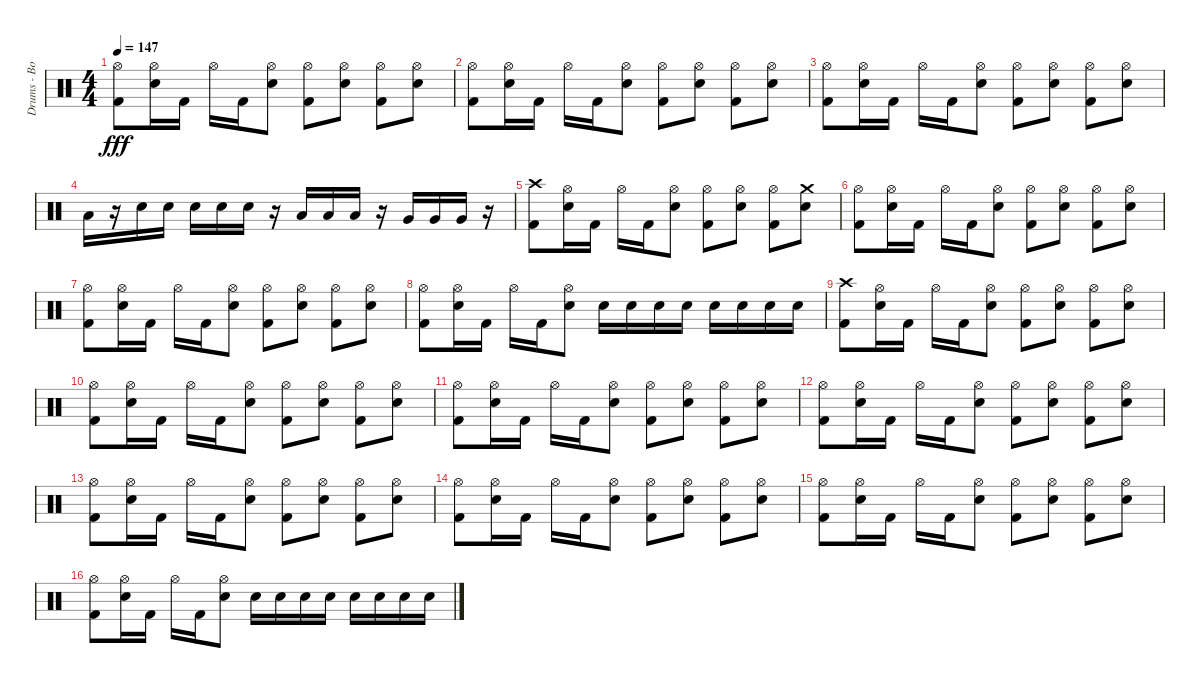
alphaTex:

\track ("Drums - Bobby Schayer" "Drums - Bo") {instrument percussion}
\staff {score}
\articulation defaults
\ts (4 4)
\tempo 147
\clef neutral
\ks c
("Hi-Hat (open)" "Kick (hit) 2").8{dy fff} ("Electric Snare (hit)" "Hi-Hat (open)").16 "Kick (hit) 2".16 "Hi-Hat (open)".16 "Kick (hit) 2".16 ("Electric Snare (hit)" "Hi-Hat (open)").8 ("Kick (hit) 2" "Hi-Hat (open)").8 ("Electric Snare (hit)" "Hi-Hat (open)").8 ("Kick (hit) 2" "Hi-Hat (open)").8 ("Electric Snare (hit)" "Hi-Hat (open)").8 |
("Kick (hit) 2" "Hi-Hat (open)").8 ("Electric Snare (hit)" "Hi-Hat (open)").16 "Kick (hit) 2".16 "Hi-Hat (open)".16 "Kick (hit) 2".16 ("Electric Snare (hit)" "Hi-Hat (open)").8 ("Kick (hit) 2" "Hi-Hat (open)").8 ("Electric Snare (hit)" "Hi-Hat (open)").8 ("Kick (hit) 2" "Hi-Hat (open)").8 ("Electric Snare (hit)" "Hi-Hat (open)").8 |
("Kick (hit) 2" "Hi-Hat (open)").8 ("Electric Snare (hit)" "Hi-Hat (open)").16 "Kick (hit) 2".16 "Hi-Hat (open)".16 "Kick (hit) 2".16 ("Electric Snare (hit)" "Hi-Hat (open)").8 ("Kick (hit) 2" "Hi-Hat (open)").8 ("Electric Snare (hit)" "Hi-Hat (open)").8 ("Kick (hit) 2" "Hi-Hat (open)").8 ("Electric Snare (hit)" "Hi-Hat (open)").8 |
"Low Tom (hit)".16 r.16 "Electric Snare (hit)".16 "Electric Snare (hit)".16 "Electric Snare (hit)".16 "Electric Snare (hit)".16 "Electric Snare (hit)".16 r.16 "Low Tom (hit)".16 "Low Tom (hit)".16 "Low Tom (hit)".16 r.16 "Very Low Tom (hit)".16 "Very Low Tom (hit)".16 "Very Low Tom (hit)".16 r.16 |
("Kick (hit) 2" "Crash high (hit)").8 ("Electric Snare (hit)" "Hi-Hat (open)").16 "Kick (hit) 2".16 "Hi-Hat (open)".16 "Kick (hit) 2".16 ("Electric Snare (hit)" "Hi-Hat (open)").8 ("Hi-Hat (open)" "Kick (hit) 2").8 ("Hi-Hat (open)" "Electric Snare (hit)").8 ("Hi-Hat (open)" "Kick (hit) 2").8 ("Crash medium (hit)" "Electric Snare (hit)").8 |
("Hi-Hat (open)" "Kick (hit) 2").8 ("Electric Snare (hit)" "Hi-Hat (open)").16 "Kick (hit) 2".16 "Hi-Hat (open)".16 "Kick (hit) 2".16 ("Electric Snare (hit)" "Hi-Hat (open)").8 ("Hi-Hat (open)" "Kick (hit) 2").8 ("Hi-Hat (open)" "Electric Snare (hit)").8 ("Hi-Hat (open)" "Kick (hit) 2").8 ("Hi-Hat (open)" "Electric Snare (hit)").8 |
("Hi-Hat (open)" "Kick (hit) 2").8 ("Electric Snare (hit)" "Hi-Hat (open)").16 "Kick (hit) 2".16 "Hi-Hat (open)".16 "Kick (hit) 2".16 ("Electric Snare (hit)" "Hi-Hat (open)").8 ("Hi-Hat (open)" "Kick (hit) 2").8 ("Hi-Hat (open)" "Electric Snare (hit)").8 ("Hi-Hat (open)" "Kick (hit) 2").8 ("Hi-Hat (open)" "Electric Snare (hit)").8 |
("Hi-Hat (open)" "Kick (hit) 2").8 ("Electric Snare (hit)" "Hi-Hat (open)").16 "Kick (hit) 2".16 "Hi-Hat (open)".16 "Kick (hit) 2".16 ("Electric Snare (hit)" "Hi-Hat (open)").8 "Electric Snare (hit)".16 "Electric Snare (hit)".16 "Electric Snare (hit)".16 "Electric Snare (hit)".16 "Electric Snare (hit)".16 "Electric Snare (hit)".16 "Electric Snare (hit)".16 "Electric Snare (hit)".16 |
("Crash high (hit)" "Kick (hit) 2").8 ("Electric Snare (hit)" "Hi-Hat (open)").16 "Kick (hit) 2".16 "Hi-Hat (open)".16 "Kick (hit) 2".16 ("Electric Snare (hit)" "Hi-Hat (open)").8 ("Kick (hit) 2" "Hi-Hat (open)").8 ("Electric Snare (hit)" "Hi-Hat (open)").8 ("Kick (hit) 2" "Hi-Hat (open)").8 ("Electric Snare (hit)" "Hi-Hat (open)").8 |
("Kick (hit) 2" "Hi-Hat (open)").8 ("Electric Snare (hit)" "Hi-Hat (open)").16 "Kick (hit) 2".16 "Hi-Hat (open)".16 "Kick (hit) 2".16 ("Electric Snare (hit)" "Hi-Hat (open)").8 ("Kick (hit) 2" "Hi-Hat (open)").8 ("Electric Snare (hit)" "Hi-Hat (open)").8 ("Kick (hit) 2" "Hi-Hat (open)").8 ("Electric Snare (hit)" "Hi-Hat (open)").8 |
("Hi-Hat (open)" "Kick (hit) 2").8 ("Electric Snare (hit)" "Hi-Hat (open)").16 "Kick (hit) 2".16 "Hi-Hat (open)".16 "Kick (hit) 2".16 ("Electric Snare (hit)" "Hi-Hat (open)").8 ("Kick (hit) 2" "Hi-Hat (open)").8 ("Electric Snare (hit)" "Hi-Hat (open)").8 ("Kick (hit) 2" "Hi-Hat (open)").8 ("Electric Snare (hit)" "Hi-Hat (open)").8 |
("Hi-Hat (open)" "Kick (hit) 2").8 ("Electric Snare (hit)" "Hi-Hat (open)").16 "Kick (hit) 2".16 "Hi-Hat (open)".16 "Kick (hit) 2".16 ("Electric Snare (hit)" "Hi-Hat (open)").8 ("Kick (hit) 2" "Hi-Hat (open)").8 ("Electric Snare (hit)" "Hi-Hat (open)").8 ("Kick (hit) 2" "Hi-Hat (open)").8 ("Electric Snare (hit)" "Hi-Hat (open)").8 |
("Kick (hit) 2" "Hi-Hat (open)").8 ("Electric Snare (hit)" "Hi-Hat (open)").16 "Kick (hit) 2".16 "Hi-Hat (open)".16 "Kick (hit) 2".16 ("Electric Snare (hit)" "Hi-Hat (open)").8 ("Kick (hit) 2" "Hi-Hat (open)").8 ("Electric Snare (hit)" "Hi-Hat (open)").8 ("Kick (hit) 2" "Hi-Hat (open)").8 ("Electric Snare (hit)" "Hi-Hat (open)").8 |
("Kick (hit) 2" "Hi-Hat (open)").8 ("Electric Snare (hit)" "Hi-Hat (open)").16 "Kick (hit) 2".16 "Hi-Hat (open)".16 "Kick (hit) 2".16 ("Electric Snare (hit)" "Hi-Hat (open)").8 ("Kick (hit) 2" "Hi-Hat (open)").8 ("Electric Snare (hit)" "Hi-Hat (open)").8 ("Kick (hit) 2" "Hi-Hat (open)").8 ("Electric Snare (hit)" "Hi-Hat (open)").8 |
("Kick (hit) 2" "Hi-Hat (open)").8 ("Electric Snare (hit)" "Hi-Hat (open)").16 "Kick (hit) 2".16 "Hi-Hat (open)".16 "Kick (hit) 2".16 ("Electric Snare (hit)" "Hi-Hat (open)").8 ("Kick (hit) 2" "Hi-Hat (open)").8 ("Electric Snare (hit)" "Hi-Hat (open)").8 ("Kick (hit) 2" "Hi-Hat (open)").8 ("Electric Snare (hit)" "Hi-Hat (open)").8 |
("Kick (hit) 2" "Hi-Hat (open)").8 ("Electric Snare (hit)" "Hi-Hat (open)").16 "Kick (hit) 2".16 "Hi-Hat (open)".16 "Kick (hit) 2".16 ("Electric Snare (hit)" "Hi-Hat (open)").8 "Electric Snare (hit)".16 "Electric Snare (hit)".16 "Electric Snare (hit)".16 "Electric Snare (hit)".16 "Electric Snare (hit)".16 "Electric Snare (hit)".16 "Electric Snare (hit)".16 "Electric Snare (hit)".16
